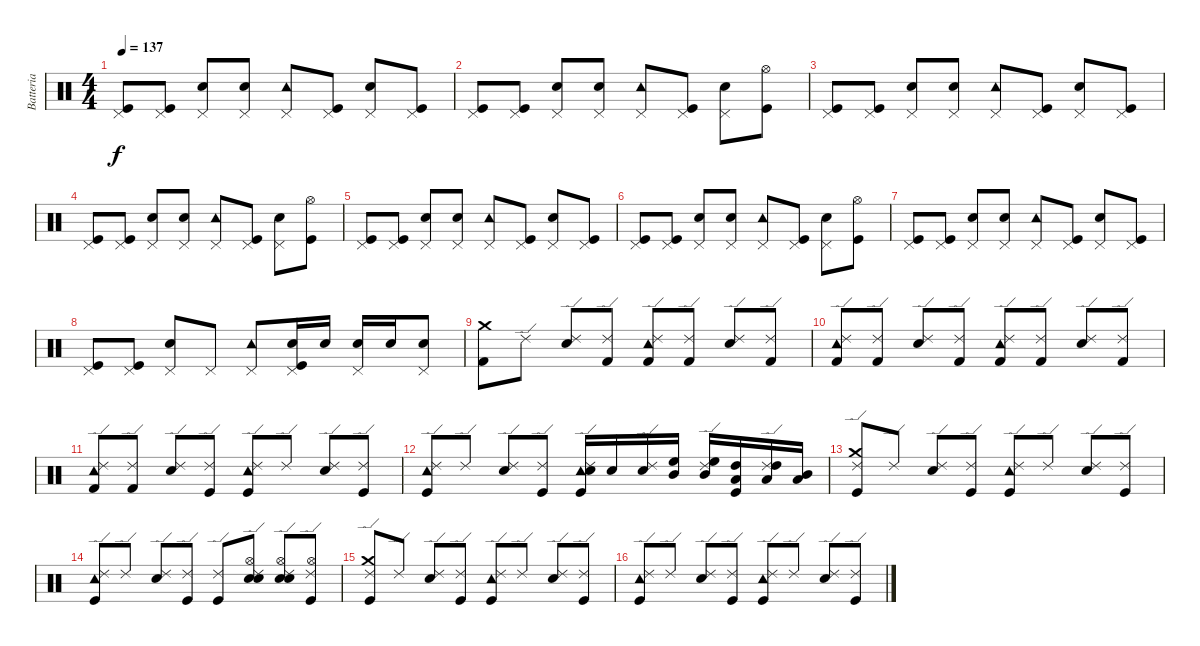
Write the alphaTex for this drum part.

\track ("Batteria" "Batteria") {instrument percussion}
\staff {score}
\articulation defaults
\ts (4 4)
\tempo 137
\clef neutral
\ks c
("Pedal Hi-Hat (hit)" "Kick (hit)").8{dy f} ("Pedal Hi-Hat (hit)" "Kick (hit)").8 ("Pedal Hi-Hat (hit)" "Electric Snare (hit)").8 ("Pedal Hi-Hat (hit)" "Electric Snare (hit)").8 ("Pedal Hi-Hat (hit)" "Tambourine (hit)").8 ("Pedal Hi-Hat (hit)" "Kick (hit)").8 ("Pedal Hi-Hat (hit)" "Electric Snare (hit)").8 ("Pedal Hi-Hat (hit)" "Kick (hit)").8 |
("Pedal Hi-Hat (hit)" "Kick (hit)").8 ("Pedal Hi-Hat (hit)" "Kick (hit)").8 ("Pedal Hi-Hat (hit)" "Electric Snare (hit)").8 ("Pedal Hi-Hat (hit)" "Electric Snare (hit)").8 ("Pedal Hi-Hat (hit)" "Tambourine (hit)").8 ("Pedal Hi-Hat (hit)" "Kick (hit)").8 ("Pedal Hi-Hat (hit)" "Electric Snare (hit)").8 ("Hi-Hat (open)" "Kick (hit)").8 |
("Pedal Hi-Hat (hit)" "Kick (hit)").8 ("Pedal Hi-Hat (hit)" "Kick (hit)").8 ("Pedal Hi-Hat (hit)" "Electric Snare (hit)").8 ("Pedal Hi-Hat (hit)" "Electric Snare (hit)").8 ("Pedal Hi-Hat (hit)" "Tambourine (hit)").8 ("Pedal Hi-Hat (hit)" "Kick (hit)").8 ("Pedal Hi-Hat (hit)" "Electric Snare (hit)").8 ("Pedal Hi-Hat (hit)" "Kick (hit)").8 |
("Pedal Hi-Hat (hit)" "Kick (hit)").8 ("Pedal Hi-Hat (hit)" "Kick (hit)").8 ("Pedal Hi-Hat (hit)" "Electric Snare (hit)").8 ("Pedal Hi-Hat (hit)" "Electric Snare (hit)").8 ("Pedal Hi-Hat (hit)" "Tambourine (hit)").8 ("Pedal Hi-Hat (hit)" "Kick (hit)").8 ("Pedal Hi-Hat (hit)" "Electric Snare (hit)").8 ("Hi-Hat (open)" "Kick (hit)").8 |
("Pedal Hi-Hat (hit)" "Kick (hit)").8 ("Pedal Hi-Hat (hit)" "Kick (hit)").8 ("Pedal Hi-Hat (hit)" "Electric Snare (hit)").8 ("Pedal Hi-Hat (hit)" "Electric Snare (hit)").8 ("Pedal Hi-Hat (hit)" "Tambourine (hit)").8 ("Pedal Hi-Hat (hit)" "Kick (hit)").8 ("Pedal Hi-Hat (hit)" "Electric Snare (hit)").8 ("Pedal Hi-Hat (hit)" "Kick (hit)").8 |
("Pedal Hi-Hat (hit)" "Kick (hit)").8 ("Pedal Hi-Hat (hit)" "Kick (hit)").8 ("Pedal Hi-Hat (hit)" "Electric Snare (hit)").8 ("Pedal Hi-Hat (hit)" "Electric Snare (hit)").8 ("Pedal Hi-Hat (hit)" "Tambourine (hit)").8 ("Pedal Hi-Hat (hit)" "Kick (hit)").8 ("Pedal Hi-Hat (hit)" "Electric Snare (hit)").8 ("Hi-Hat (open)" "Kick (hit)").8 |
("Pedal Hi-Hat (hit)" "Kick (hit)").8 ("Pedal Hi-Hat (hit)" "Kick (hit)").8 ("Pedal Hi-Hat (hit)" "Electric Snare (hit)").8 ("Pedal Hi-Hat (hit)" "Electric Snare (hit)").8 ("Pedal Hi-Hat (hit)" "Tambourine (hit)").8 ("Pedal Hi-Hat (hit)" "Kick (hit)").8 ("Pedal Hi-Hat (hit)" "Electric Snare (hit)").8 ("Pedal Hi-Hat (hit)" "Kick (hit)").8 |
("Pedal Hi-Hat (hit)" "Kick (hit)").8 ("Pedal Hi-Hat (hit)" "Kick (hit)").8 ("Pedal Hi-Hat (hit)" "Electric Snare (hit)").8 "Pedal Hi-Hat (hit)".8 ("Pedal Hi-Hat (hit)" "Tambourine (hit)").8 ("Pedal Hi-Hat (hit)" "Electric Snare (hit)" "Kick (hit)").16 "Electric Snare (hit)".16 ("Pedal Hi-Hat (hit)" "Electric Snare (hit)").16 "Electric Snare (hit)".16 ("Pedal Hi-Hat (hit)" "Electric Snare (hit)").8 |
("Crash medium (hit)" "Kick (hit) 2").8 "Ride (edge) 2".8 ("Ride (edge) 2" "Electric Snare (hit)").8 ("Ride (edge) 2" "Kick (hit) 2").8 ("Ride (edge) 2" "Tambourine (hit)" "Kick (hit) 2").8 ("Ride (edge) 2" "Kick (hit) 2").8 ("Ride (edge) 2" "Electric Snare (hit)").8 ("Ride (edge) 2" "Kick (hit) 2").8 |
("Ride (edge) 2" "Tambourine (hit)" "Kick (hit) 2").8 ("Ride (edge) 2" "Kick (hit) 2").8 ("Ride (edge) 2" "Electric Snare (hit)").8 ("Ride (edge) 2" "Kick (hit) 2").8 ("Ride (edge) 2" "Tambourine (hit)" "Kick (hit) 2").8 ("Ride (edge) 2" "Kick (hit) 2").8 ("Ride (edge) 2" "Electric Snare (hit)").8 ("Ride (edge) 2" "Kick (hit) 2").8 |
("Ride (edge) 2" "Tambourine (hit)" "Kick (hit) 2").8 ("Ride (edge) 2" "Kick (hit) 2").8 ("Ride (edge) 2" "Electric Snare (hit)").8 ("Ride (edge) 2" "Kick (hit)").8 ("Ride (edge) 2" "Tambourine (hit)" "Kick (hit)").8 "Ride (edge) 2".8 ("Ride (edge) 2" "Electric Snare (hit)").8 ("Ride (edge) 2" "Kick (hit)").8 |
("Ride (edge) 2" "Tambourine (hit)" "Kick (hit)").8 "Ride (edge) 2".8 ("Ride (edge) 2" "Electric Snare (hit)").8 ("Ride (edge) 2" "Kick (hit)").8 ("Ride (edge) 2" "Tambourine (hit)" "Electric Snare (hit)" "Kick (hit)").16 "Electric Snare (hit)".16 ("Ride (edge) 2" "Electric Snare (hit)").16 ("High Floor Tom (hit)" "Mid Tom (hit)").16 ("Ride (edge) 2" "High Floor Tom (hit)" "Mid Tom (hit)").16 ("High Tom (hit)" "Low Tom (hit)" "Kick (hit)").16 ("Ride (edge) 2" "High Tom (hit)" "Low Tom (hit)").16 ("Mid Tom (hit)" "Low Floor Tom (hit)").16 |
("Ride (edge) 2" "Crash medium (hit)" "Kick (hit)").8 "Ride (edge) 2".8 ("Ride (edge) 2" "Electric Snare (hit)").8 ("Ride (edge) 2" "Kick (hit)").8 ("Ride (edge) 2" "Tambourine (hit)" "Kick (hit)").8 "Ride (edge) 2".8 ("Ride (edge) 2" "Electric Snare (hit)").8 ("Ride (edge) 2" "Kick (hit)").8 |
("Ride (edge) 2" "Tambourine (hit)" "Kick (hit)").8 "Ride (edge) 2".8 ("Ride (edge) 2" "Electric Snare (hit)").8 ("Ride (edge) 2" "Kick (hit)").8 ("Ride (edge) 2" "Kick (hit)").8 ("Ride (edge) 2" "Hi-Hat (open)" "Snare (hit) 2" "Electric Snare (hit)").8 ("Ride (edge) 2" "Hi-Hat (open)" "Snare (hit) 2" "Electric Snare (hit)").8 ("Ride (edge) 2" "Hi-Hat (open)" "Kick (hit)").8 |
("Ride (edge) 2" "Crash medium (hit)" "Kick (hit)").8 "Ride (edge) 2".8 ("Ride (edge) 2" "Electric Snare (hit)").8 ("Ride (edge) 2" "Kick (hit)").8 ("Ride (edge) 2" "Tambourine (hit)" "Kick (hit)").8 "Ride (edge) 2".8 ("Ride (edge) 2" "Electric Snare (hit)").8 ("Ride (edge) 2" "Kick (hit)").8 |
("Ride (edge) 2" "Tambourine (hit)" "Kick (hit)").8 "Ride (edge) 2".8 ("Ride (edge) 2" "Electric Snare (hit)").8 ("Ride (edge) 2" "Kick (hit)").8 ("Ride (edge) 2" "Tambourine (hit)" "Kick (hit)").8 "Ride (edge) 2".8 ("Ride (edge) 2" "Electric Snare (hit)").8 ("Ride (edge) 2" "Kick (hit)").8
